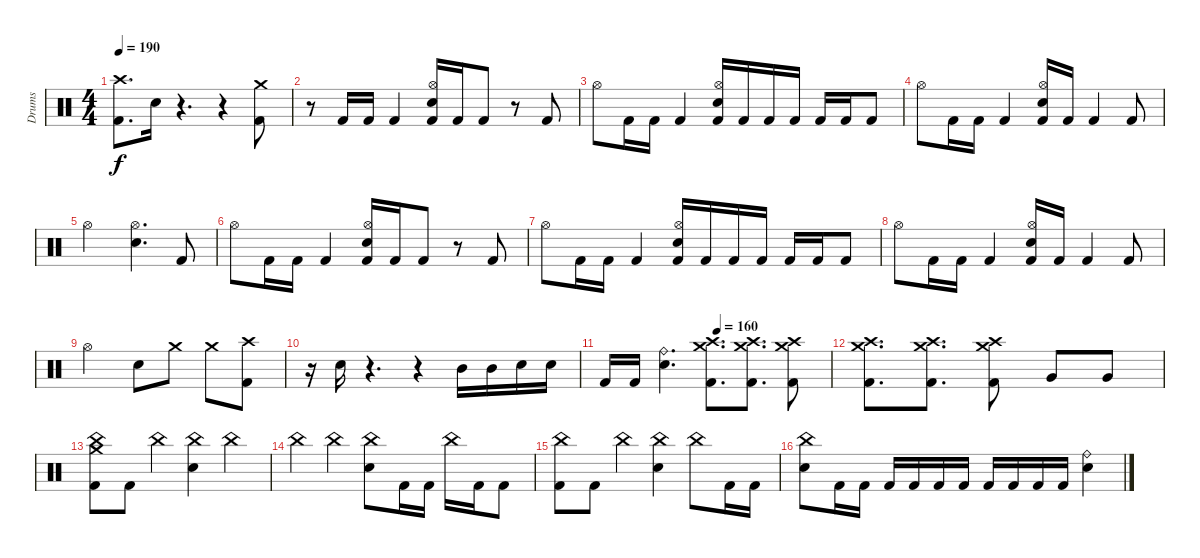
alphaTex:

\track ("Drums" "Drums") {instrument percussion}
\staff {score}
\articulation defaults
\ts (4 4)
\tempo 190
\clef neutral
\ks c
("Crash high (hit)" "Kick (hit) 2").8{d dy f} "Snare (hit)".16{volume 0} r.4{d} r.4 ("Crash medium (hit)" "Kick (hit) 2").8{volume 16} |
r.8 "Kick (hit) 2".16 "Kick (hit) 2".16 "Kick (hit) 2".4 ("Hi-Hat (open)" "Electric Snare (hit)" "Kick (hit) 2").16 "Kick (hit) 2".16 "Kick (hit) 2".8 r.8 "Kick (hit) 2".8 |
"Hi-Hat (open)".8 "Kick (hit) 2".16 "Kick (hit) 2".16 "Kick (hit) 2".4 ("Hi-Hat (open)" "Electric Snare (hit)" "Kick (hit) 2").16 "Kick (hit) 2".16 "Kick (hit) 2".16 "Kick (hit) 2".16 "Kick (hit) 2".16 "Kick (hit) 2".16 "Kick (hit) 2".8 |
"Hi-Hat (open)".8 "Kick (hit) 2".16 "Kick (hit) 2".16 "Kick (hit) 2".4 ("Hi-Hat (open)" "Electric Snare (hit)" "Kick (hit) 2").16 "Kick (hit) 2".16 "Kick (hit) 2".4 "Kick (hit) 2".8 |
"Hi-Hat (open)".2 ("Hi-Hat (open)" "Electric Snare (hit)").4{d} "Kick (hit) 2".8 |
"Hi-Hat (open)".8 "Kick (hit) 2".16 "Kick (hit) 2".16 "Kick (hit) 2".4 ("Hi-Hat (open)" "Electric Snare (hit)" "Kick (hit) 2").16 "Kick (hit) 2".16 "Kick (hit) 2".8 r.8 "Kick (hit) 2".8 |
"Hi-Hat (open)".8 "Kick (hit) 2".16 "Kick (hit) 2".16 "Kick (hit) 2".4 ("Hi-Hat (open)" "Electric Snare (hit)" "Kick (hit) 2").16 "Kick (hit) 2".16 "Kick (hit) 2".16 "Kick (hit) 2".16 "Kick (hit) 2".16 "Kick (hit) 2".16 "Kick (hit) 2".8 |
"Hi-Hat (open)".8 "Kick (hit) 2".16 "Kick (hit) 2".16 "Kick (hit) 2".4 ("Hi-Hat (open)" "Electric Snare (hit)" "Kick (hit) 2").16 "Kick (hit) 2".16 "Kick (hit) 2".4 "Kick (hit) 2".8 |
"Hi-Hat (open)".2 "Electric Snare (hit)".8 "Crash medium (hit)".8 "Crash medium (hit)".8 ("Crash high (hit)" "Kick (hit) 2").8 |
r.16 "Snare (hit)".16{volume 0} r.4{d} r.4 "Mid Tom (hit)".16{volume 16} "Mid Tom (hit)".16 "Electric Snare (hit)".16 "Electric Snare (hit)".16 |
\tempo (160 0.5)
"Kick (hit) 2".16 "Kick (hit) 2".16 ("Ride (bell)" "Electric Snare (hit)").4{d} ("Crash medium (hit)" "Crash high (hit)" "Kick (hit) 2").8{d} ("Crash medium (hit)" "Crash high (hit)" "Kick (hit) 2").8{d} ("Crash medium (hit)" "Crash high (hit)" "Kick (hit) 2").8 |
("Crash medium (hit)" "Crash high (hit)" "Kick (hit) 2").8{d} ("Crash medium (hit)" "Crash high (hit)" "Kick (hit) 2").8{d} ("Crash medium (hit)" "Crash high (hit)" "Kick (hit) 2").8 "Very Low Tom (hit)".8 "Very Low Tom (hit)".8 |
("Crash medium (hit)" "China (hit)" "Kick (hit) 2").8 "Kick (hit) 2".8 "China (hit)".4 ("China (hit)" "Electric Snare (hit)").4 "China (hit)".4 |
"China (hit)".4 "China (hit)".4 ("China (hit)" "Electric Snare (hit)").8 "Kick (hit) 2".16 "Kick (hit) 2".16 "China (hit)".16 "Kick (hit) 2".16 "Kick (hit) 2".8 |
("China (hit)" "Kick (hit) 2").8 "Kick (hit) 2".8 "China (hit)".4 ("China (hit)" "Electric Snare (hit)").4 "China (hit)".8 "Kick (hit) 2".16 "Kick (hit) 2".16 |
("China (hit)" "Electric Snare (hit)").8 "Kick (hit) 2".16 "Kick (hit) 2".16 "Kick (hit) 2".16 "Kick (hit) 2".16 "Kick (hit) 2".16 "Kick (hit) 2".16 "Kick (hit) 2".16 "Kick (hit) 2".16 "Kick (hit) 2".16 "Kick (hit) 2".16 ("Ride (bell)" "Electric Snare (hit)").4
